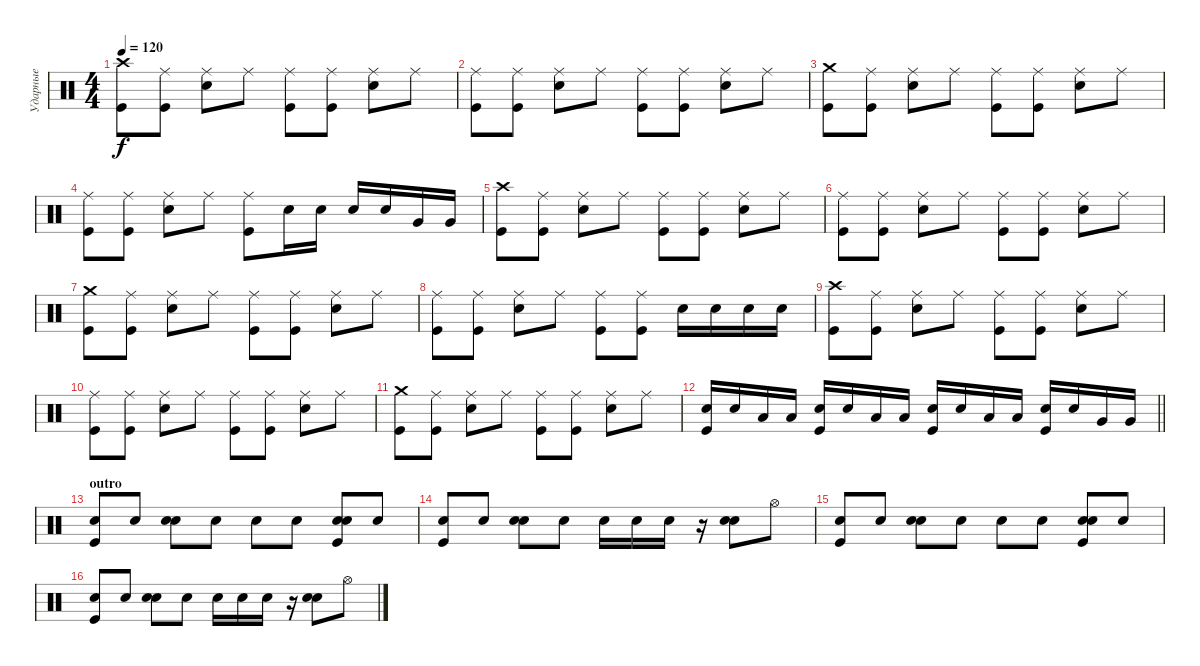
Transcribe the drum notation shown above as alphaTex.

\track ("Ударные" "Ударные") {instrument percussion}
\staff {score}
\articulation defaults
\ts (4 4)
\tempo 120
\clef neutral
\ks c
("Crash high (hit)" "Kick (hit)").8{dy f} ("Ride (middle)" "Kick (hit)").8 ("Ride (middle)" "Snare (hit) 2").8 "Ride (middle)".8 ("Ride (middle)" "Kick (hit)").8 ("Ride (middle)" "Kick (hit)").8 ("Ride (middle)" "Snare (hit) 2").8 "Ride (middle)".8 |
("Ride (middle)" "Kick (hit)").8 ("Ride (middle)" "Kick (hit)").8 ("Ride (middle)" "Snare (hit) 2").8 "Ride (middle)".8 ("Ride (middle)" "Kick (hit)").8 ("Ride (middle)" "Kick (hit)").8 ("Ride (middle)" "Snare (hit) 2").8 "Ride (middle)".8 |
("Crash medium (hit)" "Kick (hit)").8 ("Ride (middle)" "Kick (hit)").8 ("Ride (middle)" "Snare (hit) 2").8 "Ride (middle)".8 ("Ride (middle)" "Kick (hit)").8 ("Ride (middle)" "Kick (hit)").8 ("Ride (middle)" "Snare (hit) 2").8 "Ride (middle)".8 |
("Ride (middle)" "Kick (hit)").8 ("Ride (middle)" "Kick (hit)").8 ("Ride (middle)" "Snare (hit) 2").8 "Ride (middle)".8 ("Ride (middle)" "Kick (hit)").8 "Snare (hit) 2".16 "Snare (hit) 2".16 "Snare (hit) 2".16 "Snare (hit) 2".16 "Very Low Tom (hit)".16 "Very Low Tom (hit)".16 |
("Crash high (hit)" "Kick (hit)").8 ("Ride (middle)" "Kick (hit)").8 ("Ride (middle)" "Snare (hit) 2").8 "Ride (middle)".8 ("Ride (middle)" "Kick (hit)").8 ("Ride (middle)" "Kick (hit)").8 ("Ride (middle)" "Snare (hit) 2").8 "Ride (middle)".8 |
("Ride (middle)" "Kick (hit)").8 ("Ride (middle)" "Kick (hit)").8 ("Ride (middle)" "Snare (hit) 2").8 "Ride (middle)".8 ("Ride (middle)" "Kick (hit)").8 ("Ride (middle)" "Kick (hit)").8 ("Ride (middle)" "Snare (hit) 2").8 "Ride (middle)".8 |
("Crash medium (hit)" "Kick (hit)").8 ("Ride (middle)" "Kick (hit)").8 ("Ride (middle)" "Snare (hit) 2").8 "Ride (middle)".8 ("Ride (middle)" "Kick (hit)").8 ("Ride (middle)" "Kick (hit)").8 ("Ride (middle)" "Snare (hit) 2").8 "Ride (middle)".8 |
("Ride (middle)" "Kick (hit)").8 ("Ride (middle)" "Kick (hit)").8 ("Ride (middle)" "Snare (hit) 2").8 "Ride (middle)".8 ("Ride (middle)" "Kick (hit)").8 ("Ride (middle)" "Kick (hit)").8 "Snare (hit) 2".16 "Snare (hit) 2".16 "Snare (hit) 2".16 "Snare (hit) 2".16 |
("Crash high (hit)" "Kick (hit)").8 ("Ride (middle)" "Kick (hit)").8 ("Ride (middle)" "Snare (hit) 2").8 "Ride (middle)".8 ("Ride (middle)" "Kick (hit)").8 ("Ride (middle)" "Kick (hit)").8 ("Ride (middle)" "Snare (hit) 2").8 "Ride (middle)".8 |
("Ride (middle)" "Kick (hit)").8 ("Ride (middle)" "Kick (hit)").8 ("Ride (middle)" "Snare (hit) 2").8 "Ride (middle)".8 ("Ride (middle)" "Kick (hit)").8 ("Ride (middle)" "Kick (hit)").8 ("Ride (middle)" "Snare (hit) 2").8 "Ride (middle)".8 |
("Crash medium (hit)" "Kick (hit)").8 ("Ride (middle)" "Kick (hit)").8 ("Ride (middle)" "Snare (hit) 2").8 "Ride (middle)".8 ("Ride (middle)" "Kick (hit)").8 ("Ride (middle)" "Kick (hit)").8 ("Ride (middle)" "Snare (hit) 2").8 "Ride (middle)".8 |
\barLineRight lightlight
("Snare (hit) 2" "Kick (hit)").16 "Snare (hit) 2".16 "Low Floor Tom (hit)".16 "Low Floor Tom (hit)".16 ("Snare (hit) 2" "Kick (hit)").16 "Snare (hit) 2".16 "Low Floor Tom (hit)".16 "Low Floor Tom (hit)".16 ("Snare (hit) 2" "Kick (hit)").16 "Snare (hit) 2".16 "Low Floor Tom (hit)".16 "Low Floor Tom (hit)".16 ("Electric Snare (hit)" "Kick (hit)").16 "Electric Snare (hit)".16 "Very Low Tom (hit)".16 "Very Low Tom (hit)".16 |
\section ("" "outro")
("Snare (hit) 2" "Kick (hit)").8 "Snare (hit) 2".8 ("Electric Snare (hit)" "Snare (hit) 2").8 "Snare (hit) 2".8 "Snare (hit) 2".8 "Snare (hit) 2".8 ("Electric Snare (hit)" "Snare (hit) 2" "Kick (hit)").8 "Snare (hit) 2".8 |
("Snare (hit) 2" "Kick (hit)").8 "Snare (hit) 2".8 ("Electric Snare (hit)" "Snare (hit) 2").8 "Snare (hit) 2".8 "Snare (hit) 2".16 "Snare (hit) 2".16 "Snare (hit) 2".16 r.16 ("Electric Snare (hit)" "Snare (hit) 2").8 "Hi-Hat (open)".8 |
("Snare (hit) 2" "Kick (hit)").8 "Snare (hit) 2".8 ("Electric Snare (hit)" "Snare (hit) 2").8 "Snare (hit) 2".8 "Snare (hit) 2".8 "Snare (hit) 2".8 ("Electric Snare (hit)" "Snare (hit) 2" "Kick (hit)").8 "Snare (hit) 2".8 |
("Snare (hit) 2" "Kick (hit)").8 "Snare (hit) 2".8 ("Electric Snare (hit)" "Snare (hit) 2").8 "Snare (hit) 2".8 "Snare (hit) 2".16 "Snare (hit) 2".16 "Snare (hit) 2".16 r.16 ("Electric Snare (hit)" "Snare (hit) 2").8 "Hi-Hat (open)".8
